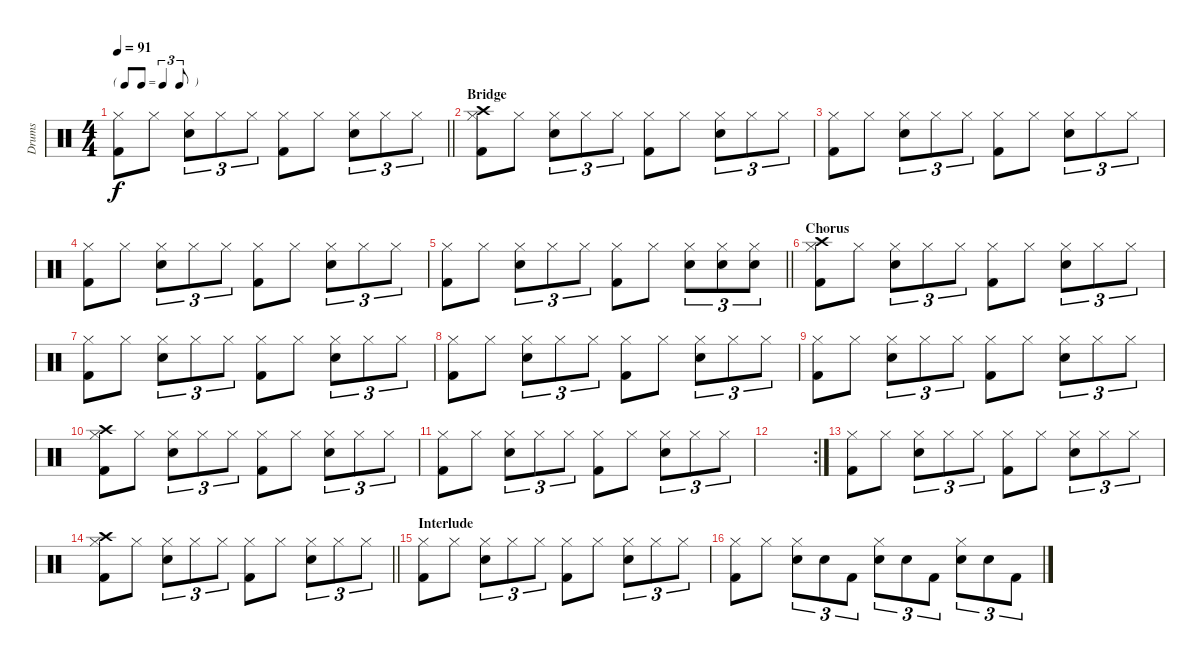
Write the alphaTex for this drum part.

\track ("Drums" "Drums") {instrument percussion}
\staff {score}
\articulation defaults
\ts (4 4)
\tf triplet8th
\tempo 91
\clef neutral
\barLineRight lightlight
\ks c
("Hi-Hat (closed)" "Kick (hit) 2").8{dy f} "Hi-Hat (closed)".8 ("Hi-Hat (closed)" "Snare (hit) 2").8{tu (3 2)} "Hi-Hat (closed)".8{tu (3 2)} "Hi-Hat (closed)".8{tu (3 2)} ("Hi-Hat (closed)" "Kick (hit) 2").8 "Hi-Hat (closed)".8 ("Hi-Hat (closed)" "Snare (hit) 2").8{tu (3 2)} "Hi-Hat (closed)".8{tu (3 2)} "Hi-Hat (closed)".8{tu (3 2)} |
\section ("" "Bridge")
("Crash high (hit)" "Hi-Hat (closed)" "Kick (hit) 2").8 "Hi-Hat (closed)".8 ("Hi-Hat (closed)" "Snare (hit) 2").8{tu (3 2)} "Hi-Hat (closed)".8{tu (3 2)} "Hi-Hat (closed)".8{tu (3 2)} ("Hi-Hat (closed)" "Kick (hit) 2").8 "Hi-Hat (closed)".8 ("Hi-Hat (closed)" "Snare (hit) 2").8{tu (3 2)} "Hi-Hat (closed)".8{tu (3 2)} "Hi-Hat (closed)".8{tu (3 2)} |
("Hi-Hat (closed)" "Kick (hit) 2").8 "Hi-Hat (closed)".8 ("Hi-Hat (closed)" "Snare (hit) 2").8{tu (3 2)} "Hi-Hat (closed)".8{tu (3 2)} "Hi-Hat (closed)".8{tu (3 2)} ("Hi-Hat (closed)" "Kick (hit) 2").8 "Hi-Hat (closed)".8 ("Hi-Hat (closed)" "Snare (hit) 2").8{tu (3 2)} "Hi-Hat (closed)".8{tu (3 2)} "Hi-Hat (closed)".8{tu (3 2)} |
("Hi-Hat (closed)" "Kick (hit) 2").8 "Hi-Hat (closed)".8 ("Hi-Hat (closed)" "Snare (hit) 2").8{tu (3 2)} "Hi-Hat (closed)".8{tu (3 2)} "Hi-Hat (closed)".8{tu (3 2)} ("Hi-Hat (closed)" "Kick (hit) 2").8 "Hi-Hat (closed)".8 ("Hi-Hat (closed)" "Snare (hit) 2").8{tu (3 2)} "Hi-Hat (closed)".8{tu (3 2)} "Hi-Hat (closed)".8{tu (3 2)} |
\barLineRight lightlight
("Hi-Hat (closed)" "Kick (hit) 2").8 "Hi-Hat (closed)".8 ("Hi-Hat (closed)" "Snare (hit) 2").8{tu (3 2)} "Hi-Hat (closed)".8{tu (3 2)} "Hi-Hat (closed)".8{tu (3 2)} ("Hi-Hat (closed)" "Kick (hit) 2").8 "Hi-Hat (closed)".8 ("Hi-Hat (closed)" "Snare (hit) 2").8{tu (3 2)} ("Hi-Hat (closed)" "Snare (hit) 2").8{tu (3 2)} ("Hi-Hat (closed)" "Snare (hit) 2").8{tu (3 2)} |
\section ("" "Chorus")
("Crash high (hit)" "Hi-Hat (closed)" "Kick (hit) 2").8 "Hi-Hat (closed)".8 ("Hi-Hat (closed)" "Snare (hit) 2").8{tu (3 2)} "Hi-Hat (closed)".8{tu (3 2)} "Hi-Hat (closed)".8{tu (3 2)} ("Hi-Hat (closed)" "Kick (hit) 2").8 "Hi-Hat (closed)".8 ("Hi-Hat (closed)" "Snare (hit) 2").8{tu (3 2)} "Hi-Hat (closed)".8{tu (3 2)} "Hi-Hat (closed)".8{tu (3 2)} |
("Hi-Hat (closed)" "Kick (hit) 2").8 "Hi-Hat (closed)".8 ("Hi-Hat (closed)" "Snare (hit) 2").8{tu (3 2)} "Hi-Hat (closed)".8{tu (3 2)} "Hi-Hat (closed)".8{tu (3 2)} ("Hi-Hat (closed)" "Kick (hit) 2").8 "Hi-Hat (closed)".8 ("Hi-Hat (closed)" "Snare (hit) 2").8{tu (3 2)} "Hi-Hat (closed)".8{tu (3 2)} "Hi-Hat (closed)".8{tu (3 2)} |
("Hi-Hat (closed)" "Kick (hit) 2").8 "Hi-Hat (closed)".8 ("Hi-Hat (closed)" "Snare (hit) 2").8{tu (3 2)} "Hi-Hat (closed)".8{tu (3 2)} "Hi-Hat (closed)".8{tu (3 2)} ("Hi-Hat (closed)" "Kick (hit) 2").8 "Hi-Hat (closed)".8 ("Hi-Hat (closed)" "Snare (hit) 2").8{tu (3 2)} "Hi-Hat (closed)".8{tu (3 2)} "Hi-Hat (closed)".8{tu (3 2)} |
("Hi-Hat (closed)" "Kick (hit) 2").8 "Hi-Hat (closed)".8 ("Hi-Hat (closed)" "Snare (hit) 2").8{tu (3 2)} "Hi-Hat (closed)".8{tu (3 2)} "Hi-Hat (closed)".8{tu (3 2)} ("Hi-Hat (closed)" "Kick (hit) 2").8 "Hi-Hat (closed)".8 ("Hi-Hat (closed)" "Snare (hit) 2").8{tu (3 2)} "Hi-Hat (closed)".8{tu (3 2)} "Hi-Hat (closed)".8{tu (3 2)} |
("Crash high (hit)" "Hi-Hat (closed)" "Kick (hit) 2").8 "Hi-Hat (closed)".8 ("Hi-Hat (closed)" "Snare (hit) 2").8{tu (3 2)} "Hi-Hat (closed)".8{tu (3 2)} "Hi-Hat (closed)".8{tu (3 2)} ("Hi-Hat (closed)" "Kick (hit) 2").8 "Hi-Hat (closed)".8 ("Hi-Hat (closed)" "Snare (hit) 2").8{tu (3 2)} "Hi-Hat (closed)".8{tu (3 2)} "Hi-Hat (closed)".8{tu (3 2)} |
("Hi-Hat (closed)" "Kick (hit) 2").8 "Hi-Hat (closed)".8 ("Hi-Hat (closed)" "Snare (hit) 2").8{tu (3 2)} "Hi-Hat (closed)".8{tu (3 2)} "Hi-Hat (closed)".8{tu (3 2)} ("Hi-Hat (closed)" "Kick (hit) 2").8 "Hi-Hat (closed)".8 ("Hi-Hat (closed)" "Snare (hit) 2").8{tu (3 2)} "Hi-Hat (closed)".8{tu (3 2)} "Hi-Hat (closed)".8{tu (3 2)} |
\rc 2
|
("Hi-Hat (closed)" "Kick (hit) 2").8 "Hi-Hat (closed)".8 ("Hi-Hat (closed)" "Snare (hit) 2").8{tu (3 2)} "Hi-Hat (closed)".8{tu (3 2)} "Hi-Hat (closed)".8{tu (3 2)} ("Hi-Hat (closed)" "Kick (hit) 2").8 "Hi-Hat (closed)".8 ("Hi-Hat (closed)" "Snare (hit) 2").8{tu (3 2)} "Hi-Hat (closed)".8{tu (3 2)} "Hi-Hat (closed)".8{tu (3 2)} |
\barLineRight lightlight
("Crash high (hit)" "Hi-Hat (closed)" "Kick (hit) 2").8 "Hi-Hat (closed)".8 ("Hi-Hat (closed)" "Snare (hit) 2").8{tu (3 2)} "Hi-Hat (closed)".8{tu (3 2)} "Hi-Hat (closed)".8{tu (3 2)} ("Hi-Hat (closed)" "Kick (hit) 2").8 "Hi-Hat (closed)".8 ("Hi-Hat (closed)" "Snare (hit) 2").8{tu (3 2)} "Hi-Hat (closed)".8{tu (3 2)} "Hi-Hat (closed)".8{tu (3 2)} |
\section ("" "Interlude")
("Hi-Hat (closed)" "Kick (hit) 2").8 "Hi-Hat (closed)".8 ("Hi-Hat (closed)" "Snare (hit) 2").8{tu (3 2)} "Hi-Hat (closed)".8{tu (3 2)} "Hi-Hat (closed)".8{tu (3 2)} ("Hi-Hat (closed)" "Kick (hit) 2").8 "Hi-Hat (closed)".8 ("Hi-Hat (closed)" "Snare (hit) 2").8{tu (3 2)} "Hi-Hat (closed)".8{tu (3 2)} "Hi-Hat (closed)".8{tu (3 2)} |
("Hi-Hat (closed)" "Kick (hit) 2").8 "Hi-Hat (closed)".8 ("Hi-Hat (closed)" "Snare (hit) 2").8{tu (3 2)} "Snare (hit) 2".8{tu (3 2)} "Kick (hit) 2".8{tu (3 2)} ("Hi-Hat (closed)" "Snare (hit) 2").8{tu (3 2)} "Snare (hit) 2".8{tu (3 2)} "Kick (hit) 2".8{tu (3 2)} ("Hi-Hat (closed)" "Snare (hit) 2").8{tu (3 2)} "Snare (hit) 2".8{tu (3 2)} "Kick (hit) 2".8{tu (3 2)}
